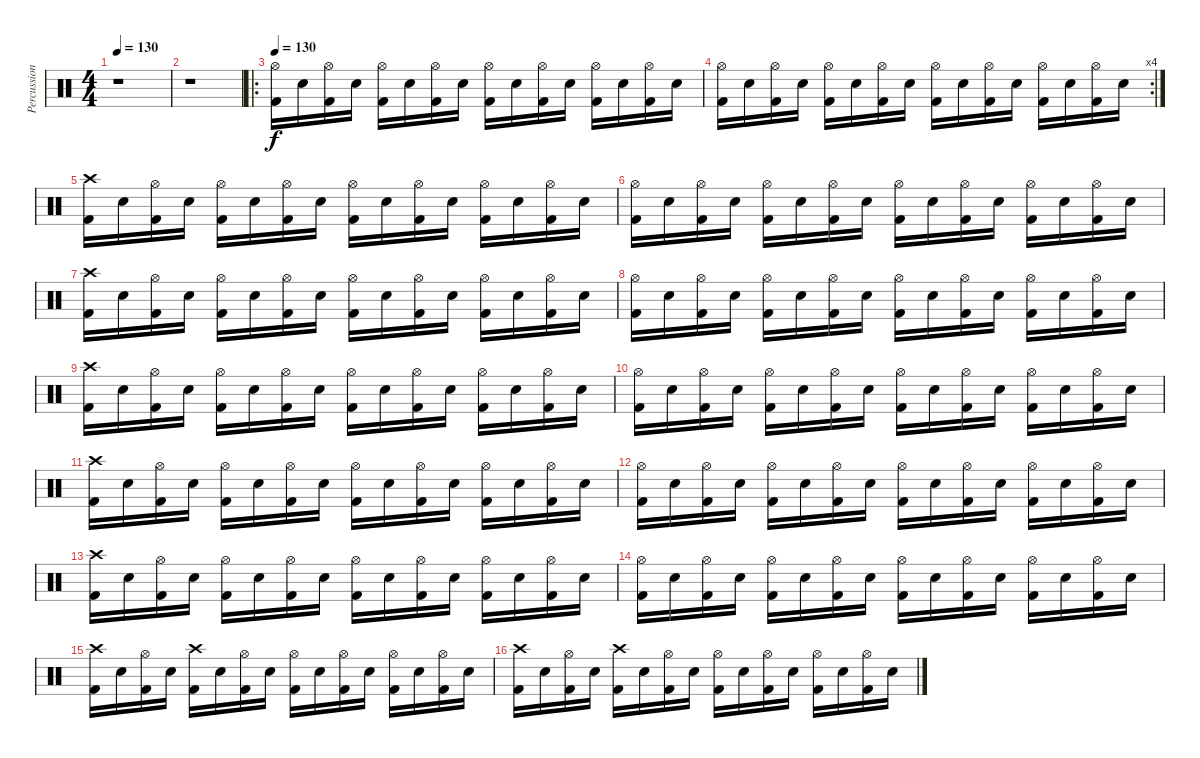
\track ("Percussion" "Percussion") {instrument percussion}
\staff {score}
\articulation defaults
\ts (4 4)
\tempo 130
\tempo 150
\tempo 130
\clef neutral
\ks c
r.1{dy f} |
r.1 |
\ro
\tempo 130
("Hi-Hat (open)" "Kick (hit) 2").16 "Snare (hit) 2".16 ("Hi-Hat (open)" "Kick (hit) 2").16 "Snare (hit) 2".16 ("Hi-Hat (open)" "Kick (hit) 2").16 "Snare (hit) 2".16 ("Hi-Hat (open)" "Kick (hit) 2").16 "Snare (hit) 2".16 ("Hi-Hat (open)" "Kick (hit) 2").16 "Snare (hit) 2".16 ("Hi-Hat (open)" "Kick (hit) 2").16 "Snare (hit) 2".16 ("Hi-Hat (open)" "Kick (hit) 2").16 "Snare (hit) 2".16 ("Hi-Hat (open)" "Kick (hit) 2").16 "Snare (hit) 2".16 |
\rc 4
("Hi-Hat (open)" "Kick (hit) 2").16 "Snare (hit) 2".16 ("Hi-Hat (open)" "Kick (hit) 2").16 "Snare (hit) 2".16 ("Hi-Hat (open)" "Kick (hit) 2").16 "Snare (hit) 2".16 ("Hi-Hat (open)" "Kick (hit) 2").16 "Snare (hit) 2".16 ("Hi-Hat (open)" "Kick (hit) 2").16 "Snare (hit) 2".16 ("Hi-Hat (open)" "Kick (hit) 2").16 "Snare (hit) 2".16 ("Hi-Hat (open)" "Kick (hit) 2").16 "Snare (hit) 2".16 ("Hi-Hat (open)" "Kick (hit) 2").16 "Snare (hit) 2".16 |
("Crash high (hit)" "Kick (hit) 2").16 "Snare (hit) 2".16 ("Hi-Hat (open)" "Kick (hit) 2").16 "Snare (hit) 2".16 ("Hi-Hat (open)" "Kick (hit) 2").16 "Snare (hit) 2".16 ("Hi-Hat (open)" "Kick (hit) 2").16 "Snare (hit) 2".16 ("Hi-Hat (open)" "Kick (hit) 2").16 "Snare (hit) 2".16 ("Hi-Hat (open)" "Kick (hit) 2").16 "Snare (hit) 2".16 ("Hi-Hat (open)" "Kick (hit) 2").16 "Snare (hit) 2".16 ("Hi-Hat (open)" "Kick (hit) 2").16 "Snare (hit) 2".16 |
("Hi-Hat (open)" "Kick (hit) 2").16 "Snare (hit) 2".16 ("Hi-Hat (open)" "Kick (hit) 2").16 "Snare (hit) 2".16 ("Hi-Hat (open)" "Kick (hit) 2").16 "Snare (hit) 2".16 ("Hi-Hat (open)" "Kick (hit) 2").16 "Snare (hit) 2".16 ("Hi-Hat (open)" "Kick (hit) 2").16 "Snare (hit) 2".16 ("Hi-Hat (open)" "Kick (hit) 2").16 "Snare (hit) 2".16 ("Hi-Hat (open)" "Kick (hit) 2").16 "Snare (hit) 2".16 ("Hi-Hat (open)" "Kick (hit) 2").16 "Snare (hit) 2".16 |
("Crash high (hit)" "Kick (hit) 2").16 "Snare (hit) 2".16 ("Hi-Hat (open)" "Kick (hit) 2").16 "Snare (hit) 2".16 ("Hi-Hat (open)" "Kick (hit) 2").16 "Snare (hit) 2".16 ("Hi-Hat (open)" "Kick (hit) 2").16 "Snare (hit) 2".16 ("Hi-Hat (open)" "Kick (hit) 2").16 "Snare (hit) 2".16 ("Hi-Hat (open)" "Kick (hit) 2").16 "Snare (hit) 2".16 ("Hi-Hat (open)" "Kick (hit) 2").16 "Snare (hit) 2".16 ("Hi-Hat (open)" "Kick (hit) 2").16 "Snare (hit) 2".16 |
("Hi-Hat (open)" "Kick (hit) 2").16 "Snare (hit) 2".16 ("Hi-Hat (open)" "Kick (hit) 2").16 "Snare (hit) 2".16 ("Hi-Hat (open)" "Kick (hit) 2").16 "Snare (hit) 2".16 ("Hi-Hat (open)" "Kick (hit) 2").16 "Snare (hit) 2".16 ("Hi-Hat (open)" "Kick (hit) 2").16 "Snare (hit) 2".16 ("Hi-Hat (open)" "Kick (hit) 2").16 "Snare (hit) 2".16 ("Hi-Hat (open)" "Kick (hit) 2").16 "Snare (hit) 2".16 ("Hi-Hat (open)" "Kick (hit) 2").16 "Snare (hit) 2".16 |
("Crash high (hit)" "Kick (hit) 2").16 "Snare (hit) 2".16 ("Hi-Hat (open)" "Kick (hit) 2").16 "Snare (hit) 2".16 ("Hi-Hat (open)" "Kick (hit) 2").16 "Snare (hit) 2".16 ("Hi-Hat (open)" "Kick (hit) 2").16 "Snare (hit) 2".16 ("Hi-Hat (open)" "Kick (hit) 2").16 "Snare (hit) 2".16 ("Hi-Hat (open)" "Kick (hit) 2").16 "Snare (hit) 2".16 ("Hi-Hat (open)" "Kick (hit) 2").16 "Snare (hit) 2".16 ("Hi-Hat (open)" "Kick (hit) 2").16 "Snare (hit) 2".16 |
("Hi-Hat (open)" "Kick (hit) 2").16 "Snare (hit) 2".16 ("Hi-Hat (open)" "Kick (hit) 2").16 "Snare (hit) 2".16 ("Hi-Hat (open)" "Kick (hit) 2").16 "Snare (hit) 2".16 ("Hi-Hat (open)" "Kick (hit) 2").16 "Snare (hit) 2".16 ("Hi-Hat (open)" "Kick (hit) 2").16 "Snare (hit) 2".16 ("Hi-Hat (open)" "Kick (hit) 2").16 "Snare (hit) 2".16 ("Hi-Hat (open)" "Kick (hit) 2").16 "Snare (hit) 2".16 ("Hi-Hat (open)" "Kick (hit) 2").16 "Snare (hit) 2".16 |
("Crash high (hit)" "Kick (hit) 2").16 "Snare (hit) 2".16 ("Hi-Hat (open)" "Kick (hit) 2").16 "Snare (hit) 2".16 ("Hi-Hat (open)" "Kick (hit) 2").16 "Snare (hit) 2".16 ("Hi-Hat (open)" "Kick (hit) 2").16 "Snare (hit) 2".16 ("Hi-Hat (open)" "Kick (hit) 2").16 "Snare (hit) 2".16 ("Hi-Hat (open)" "Kick (hit) 2").16 "Snare (hit) 2".16 ("Hi-Hat (open)" "Kick (hit) 2").16 "Snare (hit) 2".16 ("Hi-Hat (open)" "Kick (hit) 2").16 "Snare (hit) 2".16 |
("Hi-Hat (open)" "Kick (hit) 2").16 "Snare (hit) 2".16 ("Hi-Hat (open)" "Kick (hit) 2").16 "Snare (hit) 2".16 ("Hi-Hat (open)" "Kick (hit) 2").16 "Snare (hit) 2".16 ("Hi-Hat (open)" "Kick (hit) 2").16 "Snare (hit) 2".16 ("Hi-Hat (open)" "Kick (hit) 2").16 "Snare (hit) 2".16 ("Hi-Hat (open)" "Kick (hit) 2").16 "Snare (hit) 2".16 ("Hi-Hat (open)" "Kick (hit) 2").16 "Snare (hit) 2".16 ("Hi-Hat (open)" "Kick (hit) 2").16 "Snare (hit) 2".16 |
("Crash high (hit)" "Kick (hit) 2").16 "Snare (hit) 2".16 ("Hi-Hat (open)" "Kick (hit) 2").16 "Snare (hit) 2".16 ("Hi-Hat (open)" "Kick (hit) 2").16 "Snare (hit) 2".16 ("Hi-Hat (open)" "Kick (hit) 2").16 "Snare (hit) 2".16 ("Hi-Hat (open)" "Kick (hit) 2").16 "Snare (hit) 2".16 ("Hi-Hat (open)" "Kick (hit) 2").16 "Snare (hit) 2".16 ("Hi-Hat (open)" "Kick (hit) 2").16 "Snare (hit) 2".16 ("Hi-Hat (open)" "Kick (hit) 2").16 "Snare (hit) 2".16 |
("Hi-Hat (open)" "Kick (hit) 2").16 "Snare (hit) 2".16 ("Hi-Hat (open)" "Kick (hit) 2").16 "Snare (hit) 2".16 ("Hi-Hat (open)" "Kick (hit) 2").16 "Snare (hit) 2".16 ("Hi-Hat (open)" "Kick (hit) 2").16 "Snare (hit) 2".16 ("Hi-Hat (open)" "Kick (hit) 2").16 "Snare (hit) 2".16 ("Hi-Hat (open)" "Kick (hit) 2").16 "Snare (hit) 2".16 ("Hi-Hat (open)" "Kick (hit) 2").16 "Snare (hit) 2".16 ("Hi-Hat (open)" "Kick (hit) 2").16 "Snare (hit) 2".16 |
("Crash high (hit)" "Kick (hit) 2").16 "Snare (hit) 2".16 ("Hi-Hat (open)" "Kick (hit) 2").16 "Snare (hit) 2".16 ("Crash high (hit)" "Kick (hit) 2").16 "Snare (hit) 2".16 ("Hi-Hat (open)" "Kick (hit) 2").16 "Snare (hit) 2".16 ("Hi-Hat (open)" "Kick (hit) 2").16 "Snare (hit) 2".16 ("Hi-Hat (open)" "Kick (hit) 2").16 "Snare (hit) 2".16 ("Hi-Hat (open)" "Kick (hit) 2").16 "Snare (hit) 2".16 ("Hi-Hat (open)" "Kick (hit) 2").16 "Snare (hit) 2".16 |
("Crash high (hit)" "Kick (hit) 2").16 "Snare (hit) 2".16 ("Hi-Hat (open)" "Kick (hit) 2").16 "Snare (hit) 2".16 ("Crash high (hit)" "Kick (hit) 2").16 "Snare (hit) 2".16 ("Hi-Hat (open)" "Kick (hit) 2").16 "Snare (hit) 2".16 ("Hi-Hat (open)" "Kick (hit) 2").16 "Snare (hit) 2".16 ("Hi-Hat (open)" "Kick (hit) 2").16 "Snare (hit) 2".16 ("Hi-Hat (open)" "Kick (hit) 2").16 "Snare (hit) 2".16 ("Hi-Hat (open)" "Kick (hit) 2").16 "Snare (hit) 2".16
